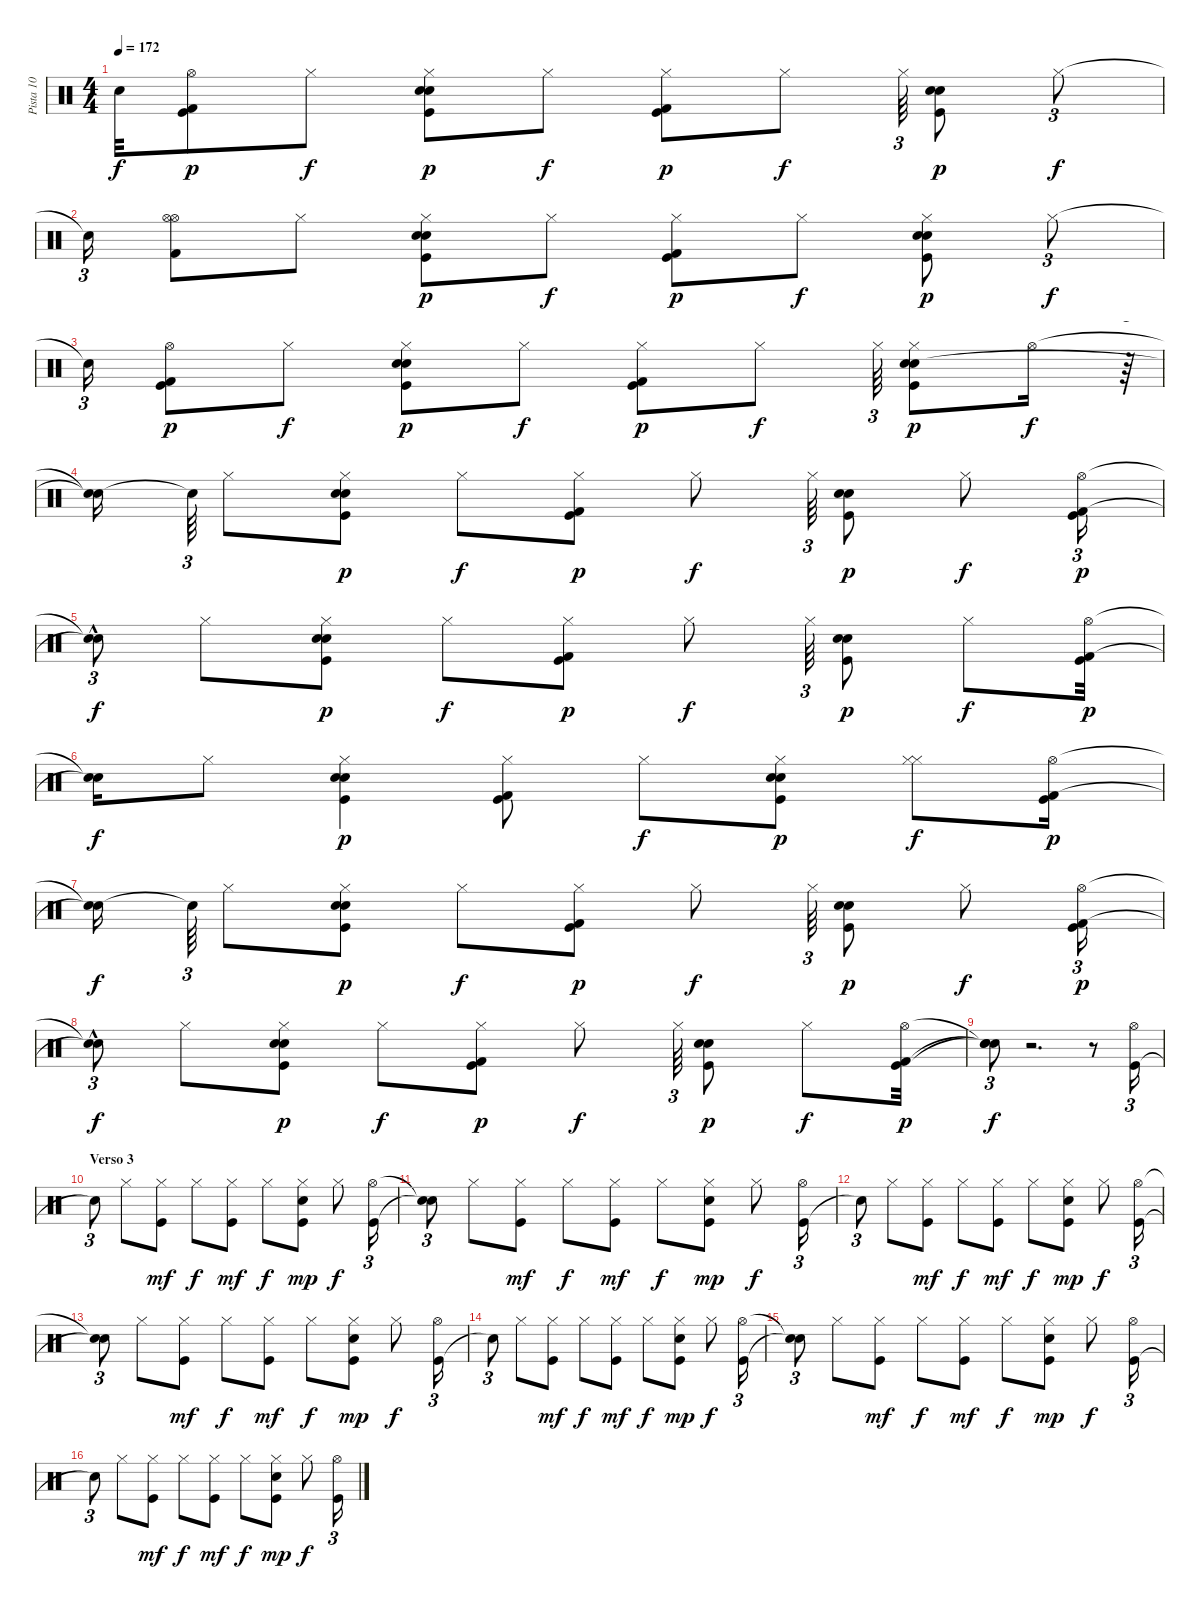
\track ("Pista 10" "Pista 10") {instrument percussion}
\staff {score}
\articulation defaults
\ts (4 4)
\tempo 172
\clef neutral
\ks c "Snare (hit)"{t}.32{dy f}
("Hi-Hat (open)" "Kick (hit) 2" "Kick (hit)").8{dy p} "Hi-Hat (closed)".8{dy f} ("Hi-Hat (closed)" "Snare (hit) 2" "Electric Snare (hit)" "Kick (hit)").8{dy p} "Hi-Hat (closed)".8{dy f} ("Hi-Hat (closed)" "Kick (hit) 2" "Kick (hit)").8{dy p} "Hi-Hat (closed)".8{dy f} "Hi-Hat (closed)".64{tu (3 2)} ("Snare (hit) 2" "Electric Snare (hit)" "Kick (hit)").8{dy p} "Hi-Hat (closed)".8{tu (3 2) dy f} |
"Snare (hit)"{t}.16{tu (3 2)} ("Hi-Hat (open)" "Hi-Hat (open)" "Kick (hit) 2").8 "Hi-Hat (closed)".8 ("Hi-Hat (closed)" "Electric Snare (hit)" "Snare (hit) 2" "Kick (hit)").8{dy p} "Hi-Hat (closed)".8{dy f} ("Kick (hit) 2" "Kick (hit)" "Hi-Hat (closed)").8{dy p} "Hi-Hat (closed)".8{dy f} ("Snare (hit) 2" "Electric Snare (hit)" "Kick (hit)" "Hi-Hat (closed)").8{dy p} "Hi-Hat (closed)".8{tu (3 2) dy f} |
"Snare (hit)"{t}.16{tu (3 2)} ("Hi-Hat (open)" "Kick (hit) 2" "Kick (hit)").8{dy p} "Hi-Hat (closed)".8{dy f} ("Hi-Hat (closed)" "Snare (hit) 2" "Electric Snare (hit)" "Kick (hit)").8{dy p} "Hi-Hat (closed)".8{dy f} ("Hi-Hat (closed)" "Kick (hit) 2" "Kick (hit)").8{dy p} "Hi-Hat (closed)".8{dy f} "Hi-Hat (closed)".64{tu (3 2)} ("Snare (hit) 2" "Electric Snare (hit)" "Kick (hit)" "Hi-Hat (closed)").8{dy p} "Hi-Hat (open)".16{dy f} r.64{tu (3 2)} |
("Snare (hit)"{t} "Snare (hit)"{t}).16 "Snare (hit)"{t}.64{tu (3 2)} "Hi-Hat (closed)".8 ("Hi-Hat (closed)" "Snare (hit) 2" "Electric Snare (hit)" "Kick (hit)").8{dy p} "Hi-Hat (closed)".8{dy f} ("Hi-Hat (closed)" "Kick (hit) 2" "Kick (hit)").8{dy p} "Hi-Hat (closed)".8{dy f} "Hi-Hat (closed)".64{tu (3 2)} ("Snare (hit) 2" "Electric Snare (hit)" "Kick (hit)").8{dy p} "Hi-Hat (closed)".8{dy f} ("Hi-Hat (open)" "Kick (hit) 2" "Kick (hit)").16{tu (3 2) dy p} |
("Snare (hit)"{t} "Snare (hit)"{hac t}).8{tu (3 2) dy f} "Hi-Hat (closed)".8 ("Hi-Hat (closed)" "Snare (hit) 2" "Electric Snare (hit)" "Kick (hit)").8{dy p} "Hi-Hat (closed)".8{dy f} ("Hi-Hat (closed)" "Kick (hit) 2" "Kick (hit)").8{dy p} "Hi-Hat (closed)".8{dy f} "Hi-Hat (closed)".64{tu (3 2)} ("Snare (hit) 2" "Electric Snare (hit)" "Kick (hit)").8{dy p} "Hi-Hat (closed)".8{dy f} ("Hi-Hat (open)" "Kick (hit) 2" "Kick (hit)").32{dy p} |
("Snare (hit)"{t} "Snare (hit)"{t}).16{dy f} "Hi-Hat (closed)".8 ("Hi-Hat (closed)" "Electric Snare (hit)" "Snare (hit) 2" "Kick (hit)").4{dy p} ("Hi-Hat (closed)" "Kick (hit) 2" "Kick (hit)").8 "Hi-Hat (closed)".8{dy f} ("Hi-Hat (closed)" "Snare (hit) 2" "Electric Snare (hit)" "Kick (hit)").8{dy p} ("Hi-Hat (closed)" "Hi-Hat (closed)").8{dy f} ("Hi-Hat (open)" "Kick (hit) 2" "Kick (hit)").16{dy p} |
("Snare (hit)"{t} "Snare (hit)"{t}).16{dy f} "Snare (hit)"{t}.64{tu (3 2)} "Hi-Hat (closed)".8 ("Hi-Hat (closed)" "Snare (hit) 2" "Electric Snare (hit)" "Kick (hit)").8{dy p} "Hi-Hat (closed)".8{dy f} ("Hi-Hat (closed)" "Kick (hit) 2" "Kick (hit)").8{dy p} "Hi-Hat (closed)".8{dy f} "Hi-Hat (closed)".64{tu (3 2)} ("Snare (hit) 2" "Electric Snare (hit)" "Kick (hit)").8{dy p} "Hi-Hat (closed)".8{dy f} ("Hi-Hat (open)" "Kick (hit) 2" "Kick (hit)").16{tu (3 2) dy p} |
("Snare (hit)"{t} "Snare (hit)"{hac t}).8{tu (3 2) dy f} "Hi-Hat (closed)".8 ("Hi-Hat (closed)" "Snare (hit) 2" "Electric Snare (hit)" "Kick (hit)").8{dy p} "Hi-Hat (closed)".8{dy f} ("Hi-Hat (closed)" "Kick (hit) 2" "Kick (hit)").8{dy p} "Hi-Hat (closed)".8{dy f} "Hi-Hat (closed)".64{tu (3 2)} ("Snare (hit) 2" "Electric Snare (hit)" "Kick (hit)").8{dy p} "Hi-Hat (closed)".8{dy f} ("Hi-Hat (open)" "Kick (hit) 2" "Kick (hit)").32{dy p} |
("Snare (hit)"{t} "Snare (hit)"{t} "Snare (hit)"{t}).8{tu (3 2) dy f} r.2{d} r.8 ("Kick (hit)" "Hi-Hat (open)").16{tu (3 2)} |
\section ("" "Verso 3")
"Snare (hit)"{t}.8{tu (3 2)} "Hi-Hat (closed)".8 ("Hi-Hat (closed)" "Kick (hit)").8{dy mf} "Hi-Hat (closed)".8{dy f} ("Hi-Hat (closed)" "Kick (hit)").8{dy mf} "Hi-Hat (closed)".8{dy f} ("Hi-Hat (closed)" "Kick (hit)" "Snare (hit) 2").8{dy mp} "Hi-Hat (closed)".8{dy f} ("Hi-Hat (open)" "Kick (hit)").16{tu (3 2)} |
("Snare (hit)"{t} "Snare (hit)"{t}).8{tu (3 2)} "Hi-Hat (closed)".8 ("Kick (hit)" "Hi-Hat (closed)").8{dy mf} "Hi-Hat (closed)".8{dy f} ("Kick (hit)" "Hi-Hat (closed)").8{dy mf} "Hi-Hat (closed)".8{dy f} ("Snare (hit) 2" "Hi-Hat (closed)" "Kick (hit)").8{dy mp} "Hi-Hat (closed)".8{dy f} ("Kick (hit)" "Hi-Hat (open)").16{tu (3 2)} |
"Snare (hit)"{t}.8{tu (3 2)} "Hi-Hat (closed)".8 ("Hi-Hat (closed)" "Kick (hit)").8{dy mf} "Hi-Hat (closed)".8{dy f} ("Hi-Hat (closed)" "Kick (hit)").8{dy mf} "Hi-Hat (closed)".8{dy f} ("Hi-Hat (closed)" "Kick (hit)" "Snare (hit) 2").8{dy mp} "Hi-Hat (closed)".8{dy f} ("Hi-Hat (open)" "Kick (hit)").16{tu (3 2)} |
("Snare (hit)"{t} "Snare (hit)"{t}).8{tu (3 2)} "Hi-Hat (closed)".8 ("Kick (hit)" "Hi-Hat (closed)").8{dy mf} "Hi-Hat (closed)".8{dy f} ("Kick (hit)" "Hi-Hat (closed)").8{dy mf} "Hi-Hat (closed)".8{dy f} ("Snare (hit) 2" "Hi-Hat (closed)" "Kick (hit)").8{dy mp} "Hi-Hat (closed)".8{dy f} ("Kick (hit)" "Hi-Hat (open)").16{tu (3 2)} |
"Snare (hit)"{t}.8{tu (3 2)} "Hi-Hat (closed)".8 ("Hi-Hat (closed)" "Kick (hit)").8{dy mf} "Hi-Hat (closed)".8{dy f} ("Hi-Hat (closed)" "Kick (hit)").8{dy mf} "Hi-Hat (closed)".8{dy f} ("Hi-Hat (closed)" "Kick (hit)" "Snare (hit) 2").8{dy mp} "Hi-Hat (closed)".8{dy f} ("Hi-Hat (open)" "Kick (hit)").16{tu (3 2)} |
("Snare (hit)"{t} "Snare (hit)"{t}).8{tu (3 2)} "Hi-Hat (closed)".8 ("Kick (hit)" "Hi-Hat (closed)").8{dy mf} "Hi-Hat (closed)".8{dy f} ("Kick (hit)" "Hi-Hat (closed)").8{dy mf} "Hi-Hat (closed)".8{dy f} ("Snare (hit) 2" "Hi-Hat (closed)" "Kick (hit)").8{dy mp} "Hi-Hat (closed)".8{dy f} ("Kick (hit)" "Hi-Hat (open)").16{tu (3 2)} |
"Snare (hit)"{t}.8{tu (3 2)} "Hi-Hat (closed)".8 ("Hi-Hat (closed)" "Kick (hit)").8{dy mf} "Hi-Hat (closed)".8{dy f} ("Hi-Hat (closed)" "Kick (hit)").8{dy mf} "Hi-Hat (closed)".8{dy f} ("Hi-Hat (closed)" "Kick (hit)" "Snare (hit) 2").8{dy mp} "Hi-Hat (closed)".8{dy f} ("Hi-Hat (open)" "Kick (hit)").16{tu (3 2)}
